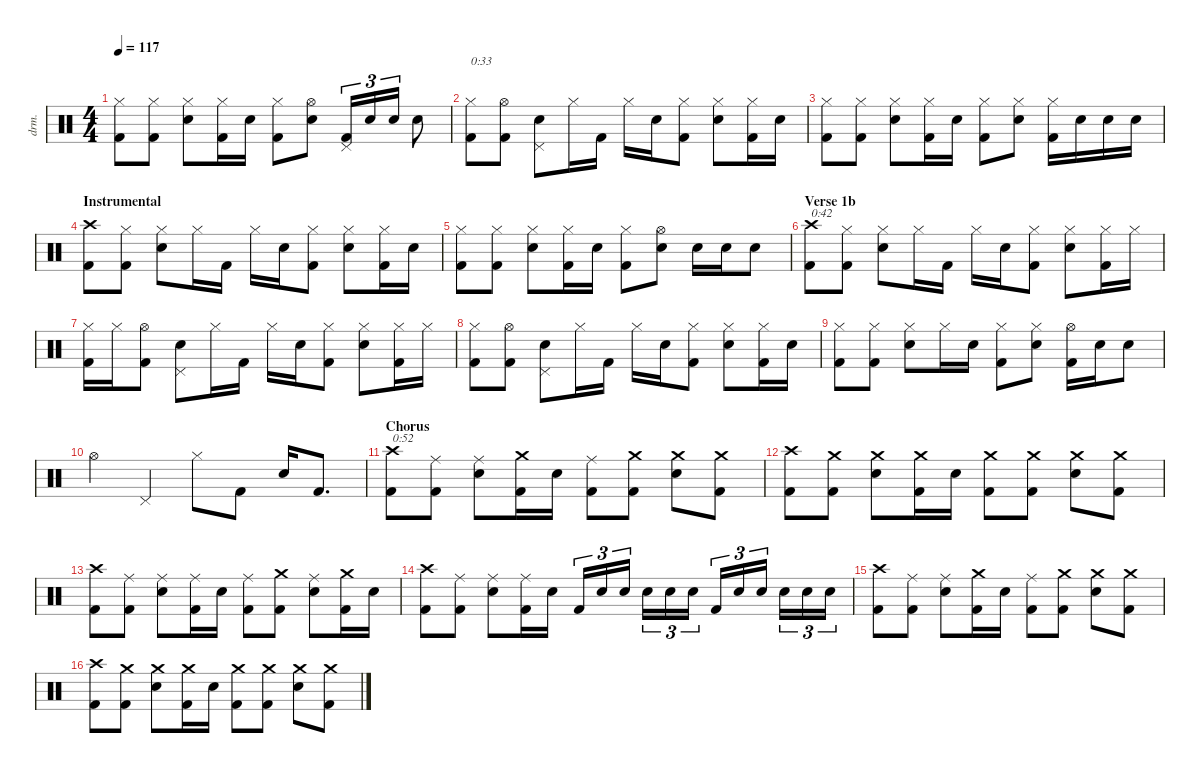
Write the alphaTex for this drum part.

\defaultSystemsLayout 4
\hideDynamics
\bracketExtendMode nobrackets
\otherSystemsTrackNameOrientation horizontal
\track ("Drums" "drm.") {instrument percussion}
\staff {score}
\articulation defaults
\ts (4 4)
\tempo 117
\clef neutral
\ks c
("Kick (hit) 2" "Hi-Hat (closed)").8{dy f} ("Kick (hit) 2" "Hi-Hat (closed)").8 ("Snare (hit) 2" "Hi-Hat (closed)").8 ("Kick (hit) 2" "Hi-Hat (closed)").16 "Snare (hit) 2".16 ("Kick (hit) 2" "Hi-Hat (closed)").8 ("Snare (hit) 2" "Hi-Hat (open)").8 ("Kick (hit) 2" "Pedal Hi-Hat (hit)").16{tu (3 2)} "Snare (hit) 2".16{tu (3 2)} "Snare (hit) 2".16{tu (3 2)} "Snare (hit) 2".8 |
("Kick (hit) 2" "Hi-Hat (closed)").8{txt "0:33"} ("Kick (hit) 2" "Hi-Hat (open)").8 ("Snare (hit) 2" "Pedal Hi-Hat (hit)").8 "Hi-Hat (closed)".16 "Kick (hit) 2".16 "Hi-Hat (closed)".16 "Snare (hit) 2".16 ("Kick (hit) 2" "Hi-Hat (closed)").8 ("Snare (hit) 2" "Hi-Hat (closed)").8 ("Kick (hit) 2" "Hi-Hat (closed)").16 "Snare (hit) 2".16 |
("Kick (hit) 2" "Hi-Hat (closed)").8 ("Kick (hit) 2" "Hi-Hat (closed)").8 ("Snare (hit) 2" "Hi-Hat (closed)").8 ("Kick (hit) 2" "Hi-Hat (closed)").16 "Snare (hit) 2".16 ("Kick (hit) 2" "Hi-Hat (closed)").8 ("Snare (hit) 2" "Hi-Hat (closed)").8 ("Kick (hit) 2" "Hi-Hat (closed)").16 "Snare (hit) 2".16 "Snare (hit) 2".16 "Snare (hit) 2".16 |
\section ("" "Instrumental")
("Kick (hit) 2" "Crash high (hit)").8 ("Kick (hit) 2" "Hi-Hat (closed)").8 ("Snare (hit) 2" "Hi-Hat (closed)").8 "Hi-Hat (closed)".16 "Kick (hit) 2".16 "Hi-Hat (closed)".16 "Snare (hit) 2".16 ("Kick (hit) 2" "Hi-Hat (closed)").8 ("Snare (hit) 2" "Hi-Hat (closed)").8 ("Kick (hit) 2" "Hi-Hat (closed)").16 "Snare (hit) 2".16 |
("Kick (hit) 2" "Hi-Hat (closed)").8 ("Kick (hit) 2" "Hi-Hat (closed)").8 ("Snare (hit) 2" "Hi-Hat (closed)").8 ("Kick (hit) 2" "Hi-Hat (closed)").16 "Snare (hit) 2".16 ("Kick (hit) 2" "Hi-Hat (closed)").8 ("Snare (hit) 2" "Hi-Hat (open)").8 "Snare (hit) 2".16 "Snare (hit) 2".16 "Snare (hit) 2".8 |
\section ("" "Verse 1b")
("Kick (hit) 2" "Crash high (hit)").8{txt "0:42"} ("Kick (hit) 2" "Hi-Hat (closed)").8 ("Snare (hit) 2" "Hi-Hat (closed)").8 "Hi-Hat (closed)".16 "Kick (hit) 2".16 "Hi-Hat (closed)".16 "Snare (hit) 2".16 ("Kick (hit) 2" "Hi-Hat (closed)").8 ("Snare (hit) 2" "Hi-Hat (closed)").8 ("Kick (hit) 2" "Hi-Hat (closed)").16 "Hi-Hat (closed)".16 |
("Kick (hit) 2" "Hi-Hat (closed)").16 "Hi-Hat (closed)".16 ("Kick (hit) 2" "Hi-Hat (open)").8 ("Snare (hit) 2" "Pedal Hi-Hat (hit)").8 "Hi-Hat (closed)".16 "Kick (hit) 2".16 "Hi-Hat (closed)".16 "Snare (hit) 2".16 ("Kick (hit) 2" "Hi-Hat (closed)").8 ("Snare (hit) 2" "Hi-Hat (closed)").8 ("Kick (hit) 2" "Hi-Hat (closed)").16 "Hi-Hat (closed)".16 |
("Kick (hit) 2" "Hi-Hat (closed)").8 ("Kick (hit) 2" "Hi-Hat (open)").8 ("Snare (hit) 2" "Pedal Hi-Hat (hit)").8 "Hi-Hat (closed)".16 "Kick (hit) 2".16 "Hi-Hat (closed)".16 "Snare (hit) 2".16 ("Kick (hit) 2" "Hi-Hat (closed)").8 ("Snare (hit) 2" "Hi-Hat (closed)").8 ("Kick (hit) 2" "Hi-Hat (closed)").16 "Snare (hit) 2".16 |
("Kick (hit) 2" "Hi-Hat (closed)").8 ("Kick (hit) 2" "Hi-Hat (closed)").8 ("Snare (hit) 2" "Hi-Hat (closed)").8 "Hi-Hat (closed)".16 "Snare (hit) 2".16 ("Kick (hit) 2" "Hi-Hat (closed)").8 ("Snare (hit) 2" "Hi-Hat (closed)").8 ("Kick (hit) 2" "Hi-Hat (open)").16 "Snare (hit) 2".16 "Snare (hit) 2".8 |
"Hi-Hat (open)".4 "Pedal Hi-Hat (hit)".4 "Hi-Hat (closed)".8 "Kick (hit) 2".8 "Snare (hit) 2".16 "Kick (hit) 2".8{d} |
\section ("" "Chorus")
("Kick (hit) 2" "Crash high (hit)").8{txt "0:52"} ("Kick (hit) 2" "Ride (middle)").8 ("Snare (hit) 2" "Ride (middle)").8 ("Kick (hit) 2" "Crash medium (hit)").16 "Snare (hit) 2".16 ("Kick (hit) 2" "Ride (middle)").8 ("Kick (hit) 2" "Crash medium (hit)").8 ("Snare (hit) 2" "Crash medium (hit)").8 ("Kick (hit) 2" "Crash medium (hit)").8 |
("Kick (hit) 2" "Crash high (hit)").8 ("Kick (hit) 2" "Crash medium (hit)").8 ("Snare (hit) 2" "Crash medium (hit)").8 ("Kick (hit) 2" "Crash medium (hit)").16 "Snare (hit) 2".16 ("Kick (hit) 2" "Crash medium (hit)").8 ("Kick (hit) 2" "Crash medium (hit)").8 ("Snare (hit) 2" "Crash medium (hit)").8 ("Kick (hit) 2" "Crash medium (hit)").8 |
("Kick (hit) 2" "Crash high (hit)").8 ("Kick (hit) 2" "Ride (middle)").8 ("Snare (hit) 2" "Ride (middle)").8 ("Kick (hit) 2" "Ride (middle)").16 "Snare (hit) 2".16 ("Kick (hit) 2" "Ride (middle)").8 ("Kick (hit) 2" "Crash medium (hit)").8 ("Snare (hit) 2" "Ride (middle)").8 ("Kick (hit) 2" "Crash medium (hit)").16 "Snare (hit) 2".16 |
("Kick (hit) 2" "Crash high (hit)").8 ("Kick (hit) 2" "Ride (middle)").8 ("Snare (hit) 2" "Ride (middle)").8 ("Kick (hit) 2" "Ride (middle)").16 "Snare (hit) 2".16 "Kick (hit) 2".16{tu (3 2)} "Snare (hit) 2".16{tu (3 2)} "Snare (hit) 2".16{tu (3 2)} "Snare (hit) 2".16{tu (3 2)} "Snare (hit) 2".16{tu (3 2)} "Snare (hit) 2".16{tu (3 2)} "Kick (hit) 2".16{tu (3 2)} "Snare (hit) 2".16{tu (3 2)} "Snare (hit) 2".16{tu (3 2)} "Snare (hit) 2".16{tu (3 2)} "Snare (hit) 2".16{tu (3 2)} "Snare (hit) 2".16{tu (3 2)} |
("Kick (hit) 2" "Crash high (hit)").8 ("Kick (hit) 2" "Ride (middle)").8 ("Snare (hit) 2" "Ride (middle)").8 ("Kick (hit) 2" "Crash medium (hit)").16 "Snare (hit) 2".16 ("Kick (hit) 2" "Ride (middle)").8 ("Kick (hit) 2" "Crash medium (hit)").8 ("Snare (hit) 2" "Crash medium (hit)").8 ("Kick (hit) 2" "Crash medium (hit)").8 |
("Kick (hit) 2" "Crash high (hit)").8 ("Kick (hit) 2" "Crash medium (hit)").8 ("Snare (hit) 2" "Crash medium (hit)").8 ("Kick (hit) 2" "Crash medium (hit)").16 "Snare (hit) 2".16 ("Kick (hit) 2" "Crash medium (hit)").8 ("Kick (hit) 2" "Crash medium (hit)").8 ("Snare (hit) 2" "Crash medium (hit)").8 ("Kick (hit) 2" "Crash medium (hit)").8
